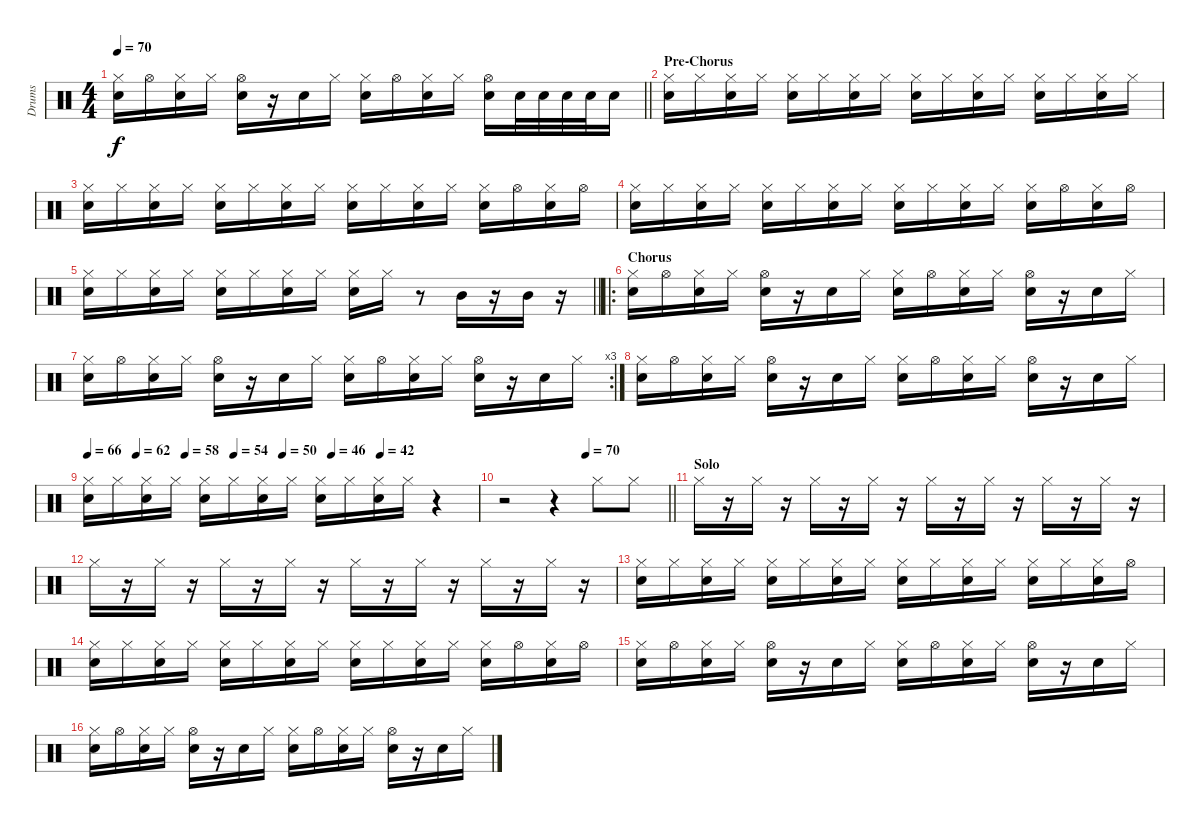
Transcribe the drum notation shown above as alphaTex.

\track ("Drums" "Drums") {instrument percussion}
\staff {score}
\articulation defaults
\ts (4 4)
\tempo 70
\clef neutral
\barLineRight lightlight
\ks c
("Hi-Hat (closed)" "Electric Snare (hit)").16{dy f} "Hi-Hat (open)".16 ("Hi-Hat (closed)" "Electric Snare (hit)").16 "Hi-Hat (closed)".16 ("Hi-Hat (open)" "Electric Snare (hit)").16 r.16 "Electric Snare (hit)".16 "Hi-Hat (closed)".16 ("Hi-Hat (closed)" "Electric Snare (hit)").16 "Hi-Hat (open)".16 ("Hi-Hat (closed)" "Electric Snare (hit)").16 "Hi-Hat (closed)".16 ("Hi-Hat (open)" "Electric Snare (hit)").16 "Electric Snare (hit)".32 "Electric Snare (hit)".32 "Electric Snare (hit)".32 "Electric Snare (hit)".32 "Electric Snare (hit)".16 |
\section ("" "Pre-Chorus")
("Hi-Hat (closed)" "Electric Snare (hit)").16 "Hi-Hat (closed)".16 ("Hi-Hat (closed)" "Electric Snare (hit)").16 "Hi-Hat (closed)".16 ("Hi-Hat (closed)" "Electric Snare (hit)").16 "Hi-Hat (closed)".16 ("Hi-Hat (closed)" "Electric Snare (hit)").16 "Hi-Hat (closed)".16 ("Hi-Hat (closed)" "Electric Snare (hit)").16 "Hi-Hat (closed)".16 ("Hi-Hat (closed)" "Electric Snare (hit)").16 "Hi-Hat (closed)".16 ("Hi-Hat (closed)" "Electric Snare (hit)").16 "Hi-Hat (closed)".16 ("Hi-Hat (closed)" "Electric Snare (hit)").16 "Hi-Hat (closed)".16 |
("Hi-Hat (closed)" "Electric Snare (hit)").16 "Hi-Hat (closed)".16 ("Hi-Hat (closed)" "Electric Snare (hit)").16 "Hi-Hat (closed)".16 ("Hi-Hat (closed)" "Electric Snare (hit)").16 "Hi-Hat (closed)".16 ("Hi-Hat (closed)" "Electric Snare (hit)").16 "Hi-Hat (closed)".16 ("Hi-Hat (closed)" "Electric Snare (hit)").16 "Hi-Hat (closed)".16 ("Hi-Hat (closed)" "Electric Snare (hit)").16 "Hi-Hat (closed)".16 ("Hi-Hat (closed)" "Electric Snare (hit)").16 "Hi-Hat (open)".16 ("Hi-Hat (closed)" "Electric Snare (hit)").16 "Hi-Hat (open)".16 |
("Hi-Hat (closed)" "Electric Snare (hit)").16 "Hi-Hat (closed)".16 ("Hi-Hat (closed)" "Electric Snare (hit)").16 "Hi-Hat (closed)".16 ("Hi-Hat (closed)" "Electric Snare (hit)").16 "Hi-Hat (closed)".16 ("Hi-Hat (closed)" "Electric Snare (hit)").16 "Hi-Hat (closed)".16 ("Hi-Hat (closed)" "Electric Snare (hit)").16 "Hi-Hat (closed)".16 ("Hi-Hat (closed)" "Electric Snare (hit)").16 "Hi-Hat (closed)".16 ("Hi-Hat (closed)" "Electric Snare (hit)").16 "Hi-Hat (open)".16 ("Hi-Hat (closed)" "Electric Snare (hit)").16 "Hi-Hat (open)".16 |
\barLineRight lightlight
("Hi-Hat (closed)" "Electric Snare (hit)").16 "Hi-Hat (closed)".16 ("Hi-Hat (closed)" "Electric Snare (hit)").16 "Hi-Hat (closed)".16 ("Hi-Hat (closed)" "Electric Snare (hit)").16 "Hi-Hat (closed)".16 ("Hi-Hat (closed)" "Electric Snare (hit)").16 "Hi-Hat (closed)".16 ("Hi-Hat (closed)" "Electric Snare (hit)").16 "Hi-Hat (closed)".16 r.8 "Mid Tom (hit)".16 r.16 "Mid Tom (hit)".16 r.16 |
\ro
\section ("" "Chorus")
("Hi-Hat (closed)" "Electric Snare (hit)").16 "Hi-Hat (open)".16 ("Hi-Hat (closed)" "Electric Snare (hit)").16 "Hi-Hat (closed)".16 ("Hi-Hat (open)" "Electric Snare (hit)").16 r.16 "Electric Snare (hit)".16 "Hi-Hat (closed)".16 ("Hi-Hat (closed)" "Electric Snare (hit)").16 "Hi-Hat (open)".16 ("Hi-Hat (closed)" "Electric Snare (hit)").16 "Hi-Hat (closed)".16 ("Hi-Hat (open)" "Electric Snare (hit)").16 r.16 "Electric Snare (hit)".16 "Hi-Hat (closed)".16 |
\rc 3
("Hi-Hat (closed)" "Electric Snare (hit)").16 "Hi-Hat (open)".16 ("Hi-Hat (closed)" "Electric Snare (hit)").16 "Hi-Hat (closed)".16 ("Hi-Hat (open)" "Electric Snare (hit)").16 r.16 "Electric Snare (hit)".16 "Hi-Hat (closed)".16 ("Hi-Hat (closed)" "Electric Snare (hit)").16 "Hi-Hat (open)".16 ("Hi-Hat (closed)" "Electric Snare (hit)").16 "Hi-Hat (closed)".16 ("Hi-Hat (open)" "Electric Snare (hit)").16 r.16 "Electric Snare (hit)".16 "Hi-Hat (closed)".16 |
("Hi-Hat (closed)" "Electric Snare (hit)").16 "Hi-Hat (open)".16 ("Hi-Hat (closed)" "Electric Snare (hit)").16 "Hi-Hat (closed)".16 ("Hi-Hat (open)" "Electric Snare (hit)").16 r.16 "Electric Snare (hit)".16 "Hi-Hat (closed)".16 ("Hi-Hat (closed)" "Electric Snare (hit)").16 "Hi-Hat (open)".16 ("Hi-Hat (closed)" "Electric Snare (hit)").16 "Hi-Hat (closed)".16 ("Hi-Hat (open)" "Electric Snare (hit)").16 r.16 "Electric Snare (hit)".16 "Hi-Hat (closed)".16 |
\tempo 66
\tempo (62 0.125)
\tempo (58 0.25)
\tempo (54 0.375)
\tempo (50 0.5)
\tempo (46 0.625)
\tempo (42 0.75)
("Hi-Hat (closed)" "Electric Snare (hit)").16 "Hi-Hat (closed)".16 ("Hi-Hat (closed)" "Electric Snare (hit)").16 "Hi-Hat (closed)".16 ("Hi-Hat (closed)" "Electric Snare (hit)").16 "Hi-Hat (closed)".16 ("Hi-Hat (closed)" "Electric Snare (hit)").16 "Hi-Hat (closed)".16 ("Hi-Hat (closed)" "Electric Snare (hit)").16 "Hi-Hat (closed)".16 ("Hi-Hat (closed)" "Electric Snare (hit)").16 "Hi-Hat (closed)".16 r.4 |
\tempo (70 0.5)
\barLineRight lightlight
r.2 r.4 "Hi-Hat (closed)".8 "Hi-Hat (closed)".8 |
\section ("" "Solo")
"Hi-Hat (closed)".16 r.16 "Hi-Hat (closed)".16 r.16 "Hi-Hat (closed)".16 r.16 "Hi-Hat (closed)".16 r.16 "Hi-Hat (closed)".16 r.16 "Hi-Hat (closed)".16 r.16 "Hi-Hat (closed)".16 r.16 "Hi-Hat (closed)".16 r.16 |
"Hi-Hat (closed)".16 r.16 "Hi-Hat (closed)".16 r.16 "Hi-Hat (closed)".16 r.16 "Hi-Hat (closed)".16 r.16 "Hi-Hat (closed)".16 r.16 "Hi-Hat (closed)".16 r.16 "Hi-Hat (closed)".16 r.16 "Hi-Hat (closed)".16 r.16 |
("Hi-Hat (closed)" "Electric Snare (hit)").16 "Hi-Hat (closed)".16 ("Hi-Hat (closed)" "Electric Snare (hit)").16 "Hi-Hat (closed)".16 ("Hi-Hat (closed)" "Electric Snare (hit)").16 "Hi-Hat (closed)".16 ("Hi-Hat (closed)" "Electric Snare (hit)").16 "Hi-Hat (closed)".16 ("Hi-Hat (closed)" "Electric Snare (hit)").16 "Hi-Hat (closed)".16 ("Hi-Hat (closed)" "Electric Snare (hit)").16 "Hi-Hat (closed)".16 ("Hi-Hat (closed)" "Electric Snare (hit)").16 "Hi-Hat (closed)".16 ("Hi-Hat (closed)" "Electric Snare (hit)").16 "Hi-Hat (open)".16 |
("Hi-Hat (closed)" "Electric Snare (hit)").16 "Hi-Hat (closed)".16 ("Hi-Hat (closed)" "Electric Snare (hit)").16 "Hi-Hat (closed)".16 ("Hi-Hat (closed)" "Electric Snare (hit)").16 "Hi-Hat (closed)".16 ("Hi-Hat (closed)" "Electric Snare (hit)").16 "Hi-Hat (closed)".16 ("Hi-Hat (closed)" "Electric Snare (hit)").16 "Hi-Hat (closed)".16 ("Hi-Hat (closed)" "Electric Snare (hit)").16 "Hi-Hat (closed)".16 ("Hi-Hat (closed)" "Electric Snare (hit)").16 "Hi-Hat (open)".16 ("Hi-Hat (closed)" "Electric Snare (hit)").16 "Hi-Hat (open)".16 |
("Hi-Hat (closed)" "Electric Snare (hit)").16 "Hi-Hat (open)".16 ("Hi-Hat (closed)" "Electric Snare (hit)").16 "Hi-Hat (closed)".16 ("Hi-Hat (open)" "Electric Snare (hit)").16 r.16 "Electric Snare (hit)".16 "Hi-Hat (closed)".16 ("Hi-Hat (closed)" "Electric Snare (hit)").16 "Hi-Hat (open)".16 ("Hi-Hat (closed)" "Electric Snare (hit)").16 "Hi-Hat (closed)".16 ("Hi-Hat (open)" "Electric Snare (hit)").16 r.16 "Electric Snare (hit)".16 "Hi-Hat (closed)".16 |
("Hi-Hat (closed)" "Electric Snare (hit)").16 "Hi-Hat (open)".16 ("Hi-Hat (closed)" "Electric Snare (hit)").16 "Hi-Hat (closed)".16 ("Hi-Hat (open)" "Electric Snare (hit)").16 r.16 "Electric Snare (hit)".16 "Hi-Hat (closed)".16 ("Hi-Hat (closed)" "Electric Snare (hit)").16 "Hi-Hat (open)".16 ("Hi-Hat (closed)" "Electric Snare (hit)").16 "Hi-Hat (closed)".16 ("Hi-Hat (open)" "Electric Snare (hit)").16 r.16 "Electric Snare (hit)".16 "Hi-Hat (closed)".16
